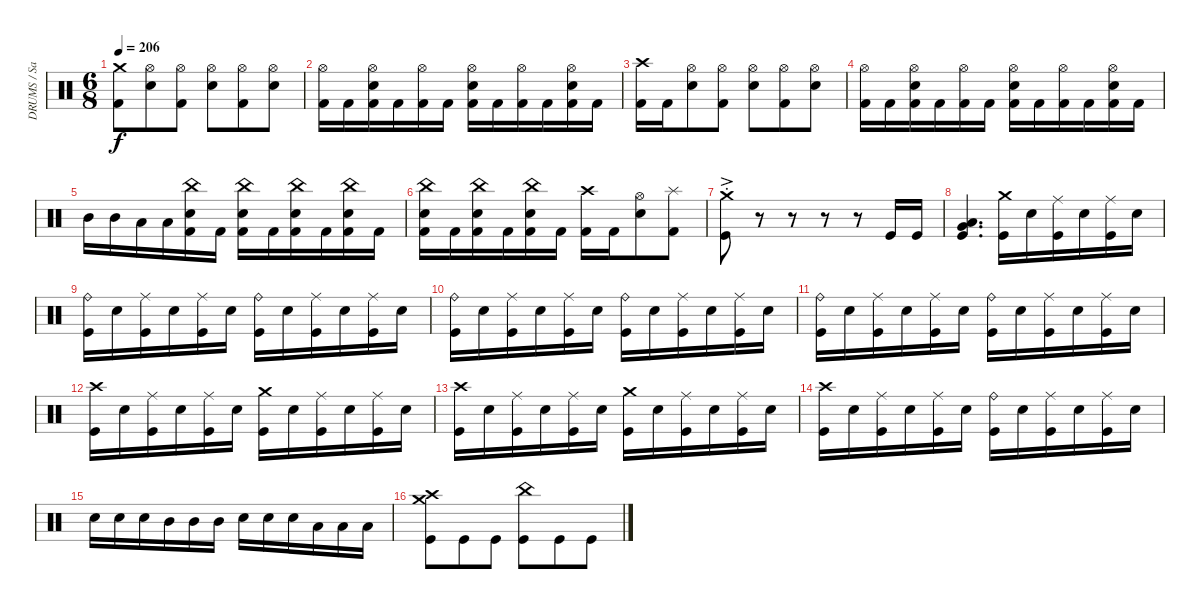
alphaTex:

\track ("DRUMS / Sasha" "DRUMS / Sa") {instrument percussion}
\staff {score}
\articulation defaults
\ts (6 8)
\tempo 206
\clef neutral
\ks c
("Crash medium (hit)" "Kick (hit) 2").8{dy f} ("Hi-Hat (open)" "Electric Snare (hit)").8 ("Hi-Hat (open)" "Kick (hit) 2").8 ("Hi-Hat (open)" "Electric Snare (hit)").8 ("Hi-Hat (open)" "Kick (hit) 2").8 ("Hi-Hat (open)" "Electric Snare (hit)").8 |
("Hi-Hat (open)" "Kick (hit) 2").16 "Kick (hit) 2".16 ("Hi-Hat (open)" "Electric Snare (hit)" "Kick (hit) 2").16 "Kick (hit) 2".16 ("Hi-Hat (open)" "Kick (hit) 2").16 "Kick (hit) 2".16 ("Hi-Hat (open)" "Electric Snare (hit)" "Kick (hit) 2").16 "Kick (hit) 2".16 ("Hi-Hat (open)" "Kick (hit) 2").16 "Kick (hit) 2".16 ("Hi-Hat (open)" "Electric Snare (hit)" "Kick (hit) 2").16 "Kick (hit) 2".16 |
("Crash high (hit)" "Kick (hit) 2").16 "Kick (hit) 2".16 ("Hi-Hat (open)" "Electric Snare (hit)").8 ("Hi-Hat (open)" "Kick (hit) 2").8 ("Hi-Hat (open)" "Electric Snare (hit)").8 ("Hi-Hat (open)" "Kick (hit) 2").8 ("Hi-Hat (open)" "Electric Snare (hit)").8 |
("Hi-Hat (open)" "Kick (hit) 2").16 "Kick (hit) 2".16 ("Hi-Hat (open)" "Electric Snare (hit)" "Kick (hit) 2").16 "Kick (hit) 2".16 ("Hi-Hat (open)" "Kick (hit) 2").16 "Kick (hit) 2".16 ("Hi-Hat (open)" "Electric Snare (hit)" "Kick (hit) 2").16 "Kick (hit) 2".16 ("Hi-Hat (open)" "Kick (hit) 2").16 "Kick (hit) 2".16 ("Hi-Hat (open)" "Electric Snare (hit)" "Kick (hit) 2").16 "Kick (hit) 2".16 |
"Mid Tom (hit)".16 "Mid Tom (hit)".16 "Low Tom (hit)".16 "Low Tom (hit)".16 ("China (hit)" "Electric Snare (hit)" "Kick (hit) 2").16 "Kick (hit) 2".16 ("China (hit)" "Electric Snare (hit)" "Kick (hit) 2").16 "Kick (hit) 2".16 ("China (hit)" "Electric Snare (hit)" "Kick (hit) 2").16 "Kick (hit) 2".16 ("China (hit)" "Electric Snare (hit)" "Kick (hit) 2").16 "Kick (hit) 2".16 |
("China (hit)" "Electric Snare (hit)" "Kick (hit) 2").16 "Kick (hit) 2".16 ("China (hit)" "Electric Snare (hit)" "Kick (hit) 2").16 "Kick (hit) 2".16 ("China (hit)" "Electric Snare (hit)" "Kick (hit) 2").16 "Kick (hit) 2".16 ("Crash high (hit)" "Kick (hit) 2").16 "Kick (hit) 2".16 ("Hi-Hat (open)" "Electric Snare (hit)").8 ("Splash (hit)" "Kick (hit) 2").8 |
("Kick (hit)" "Crash medium (hit)"{ac st}).8 r.8 r.8 r.8 r.8 "Kick (hit)".16 "Kick (hit)".16 |
("Very Low Tom (hit)" "Low Tom (hit)" "Kick (hit)").4{d} ("Kick (hit)" "Crash medium (hit)").16 "Snare (hit) 2".16 ("Kick (hit)" "Ride (middle)").16 "Snare (hit) 2".16 ("Kick (hit)" "Ride (middle)").16 "Snare (hit) 2".16 |
("Kick (hit)" "Ride (bell)").16 "Snare (hit) 2".16 ("Kick (hit)" "Ride (middle)").16 "Snare (hit) 2".16 ("Kick (hit)" "Ride (middle)").16 "Snare (hit) 2".16 ("Kick (hit)" "Ride (bell)").16 "Snare (hit) 2".16 ("Kick (hit)" "Ride (middle)").16 "Snare (hit) 2".16 ("Kick (hit)" "Ride (middle)").16 "Snare (hit) 2".16 |
("Kick (hit)" "Ride (bell)").16 "Snare (hit) 2".16 ("Kick (hit)" "Ride (middle)").16 "Snare (hit) 2".16 ("Kick (hit)" "Ride (middle)").16 "Snare (hit) 2".16 ("Kick (hit)" "Ride (bell)").16 "Snare (hit) 2".16 ("Kick (hit)" "Ride (middle)").16 "Snare (hit) 2".16 ("Kick (hit)" "Ride (middle)").16 "Snare (hit) 2".16 |
("Kick (hit)" "Ride (bell)").16 "Snare (hit) 2".16 ("Kick (hit)" "Ride (middle)").16 "Snare (hit) 2".16 ("Kick (hit)" "Ride (middle)").16 "Snare (hit) 2".16 ("Kick (hit)" "Ride (bell)").16 "Snare (hit) 2".16 ("Kick (hit)" "Ride (middle)").16 "Snare (hit) 2".16 ("Kick (hit)" "Ride (middle)").16 "Snare (hit) 2".16 |
("Kick (hit)" "Crash high (hit)").16 "Snare (hit) 2".16 ("Kick (hit)" "Ride (middle)").16 "Snare (hit) 2".16 ("Kick (hit)" "Ride (middle)").16 "Snare (hit) 2".16 ("Kick (hit)" "Crash medium (hit)").16 "Snare (hit) 2".16 ("Kick (hit)" "Ride (middle)").16 "Snare (hit) 2".16 ("Kick (hit)" "Ride (middle)").16 "Snare (hit) 2".16 |
("Kick (hit)" "Crash high (hit)").16 "Snare (hit) 2".16 ("Kick (hit)" "Ride (middle)").16 "Snare (hit) 2".16 ("Kick (hit)" "Ride (middle)").16 "Snare (hit) 2".16 ("Kick (hit)" "Crash medium (hit)").16 "Snare (hit) 2".16 ("Kick (hit)" "Ride (middle)").16 "Snare (hit) 2".16 ("Kick (hit)" "Ride (middle)").16 "Snare (hit) 2".16 |
("Kick (hit)" "Crash high (hit)").16 "Snare (hit) 2".16 ("Kick (hit)" "Ride (middle)").16 "Snare (hit) 2".16 ("Kick (hit)" "Ride (middle)").16 "Snare (hit) 2".16 ("Kick (hit)" "Ride (bell)").16 "Snare (hit) 2".16 ("Kick (hit)" "Ride (middle)").16 "Snare (hit) 2".16 ("Kick (hit)" "Ride (middle)").16 "Snare (hit) 2".16 |
"Snare (hit) 2".16 "Snare (hit) 2".16 "Snare (hit) 2".16 "Mid Tom (hit)".16 "Mid Tom (hit)".16 "Mid Tom (hit)".16 "Snare (hit) 2".16 "Snare (hit) 2".16 "Snare (hit) 2".16 "Low Tom (hit)".16 "Low Tom (hit)".16 "Low Tom (hit)".16 |
("Kick (hit)" "Crash medium (hit)" "Crash high (hit)").8 "Kick (hit)".8 "Kick (hit)".8 ("Kick (hit)" "China (hit)").8 "Kick (hit)".8 "Kick (hit)".8
